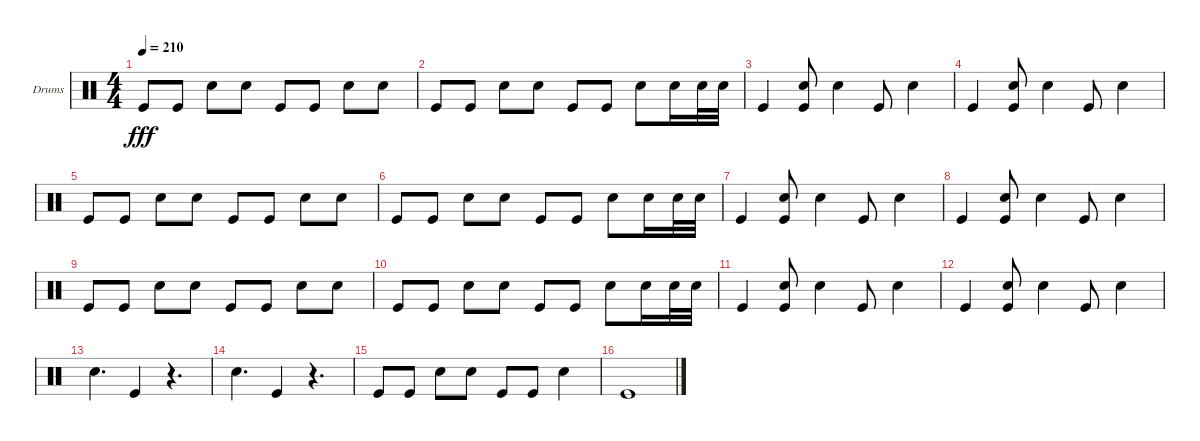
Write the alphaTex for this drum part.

\defaultSystemsLayout 4
\bracketExtendMode groupsimilarinstruments
\firstSystemTrackNameOrientation horizontal
\otherSystemsTrackNameOrientation horizontal
\track ("Helders" "Drums") {instrument percussion}
\staff {score}
\articulation defaults
\ts (4 4)
\tempo 210
\clef neutral
\ks c "Kick (hit)".8{dy fff} "Kick (hit)".8 "Snare (hit) 2".8 "Snare (hit) 2".8 "Kick (hit)".8 "Kick (hit)".8 "Snare (hit) 2".8 "Snare (hit) 2".8
|
"Kick (hit)".8 "Kick (hit)".8 "Snare (hit) 2".8 "Snare (hit) 2".8 "Kick (hit)".8 "Kick (hit)".8 "Snare (hit) 2".8 "Snare (hit) 2".16 "Snare (hit) 2".32 "Snare (hit) 2".32 |
"Kick (hit)".4 ("Kick (hit)" "Snare (hit) 2").8 "Snare (hit) 2".4 "Kick (hit)".8 "Snare (hit) 2".4 |
"Kick (hit)".4 ("Kick (hit)" "Snare (hit) 2").8 "Snare (hit) 2".4 "Kick (hit)".8 "Snare (hit) 2".4 |
"Kick (hit)".8 "Kick (hit)".8 "Snare (hit) 2".8 "Snare (hit) 2".8 "Kick (hit)".8 "Kick (hit)".8 "Snare (hit) 2".8 "Snare (hit) 2".8 |
"Kick (hit)".8 "Kick (hit)".8 "Snare (hit) 2".8 "Snare (hit) 2".8 "Kick (hit)".8 "Kick (hit)".8 "Snare (hit) 2".8 "Snare (hit) 2".16 "Snare (hit) 2".32 "Snare (hit) 2".32 |
"Kick (hit)".4 ("Kick (hit)" "Snare (hit) 2").8 "Snare (hit) 2".4 "Kick (hit)".8 "Snare (hit) 2".4 |
"Kick (hit)".4 ("Kick (hit)" "Snare (hit) 2").8 "Snare (hit) 2".4 "Kick (hit)".8 "Snare (hit) 2".4 |
"Kick (hit)".8 "Kick (hit)".8 "Snare (hit) 2".8 "Snare (hit) 2".8 "Kick (hit)".8 "Kick (hit)".8 "Snare (hit) 2".8 "Snare (hit) 2".8 |
"Kick (hit)".8 "Kick (hit)".8 "Snare (hit) 2".8 "Snare (hit) 2".8 "Kick (hit)".8 "Kick (hit)".8 "Snare (hit) 2".8 "Snare (hit) 2".16 "Snare (hit) 2".32 "Snare (hit) 2".32 |
"Kick (hit)".4 ("Kick (hit)" "Snare (hit) 2").8 "Snare (hit) 2".4 "Kick (hit)".8 "Snare (hit) 2".4 |
"Kick (hit)".4 ("Kick (hit)" "Snare (hit) 2").8 "Snare (hit) 2".4 "Kick (hit)".8 "Snare (hit) 2".4 |
"Snare (hit) 2".4{d} "Kick (hit)".4 r.4{d} |
"Snare (hit) 2".4{d} "Kick (hit)".4 r.4{d} |
"Kick (hit)".8 "Kick (hit)".8 "Snare (hit) 2".8 "Snare (hit) 2".8 "Kick (hit)".8 "Kick (hit)".8 "Snare (hit) 2".4 |
"Kick (hit)".1
